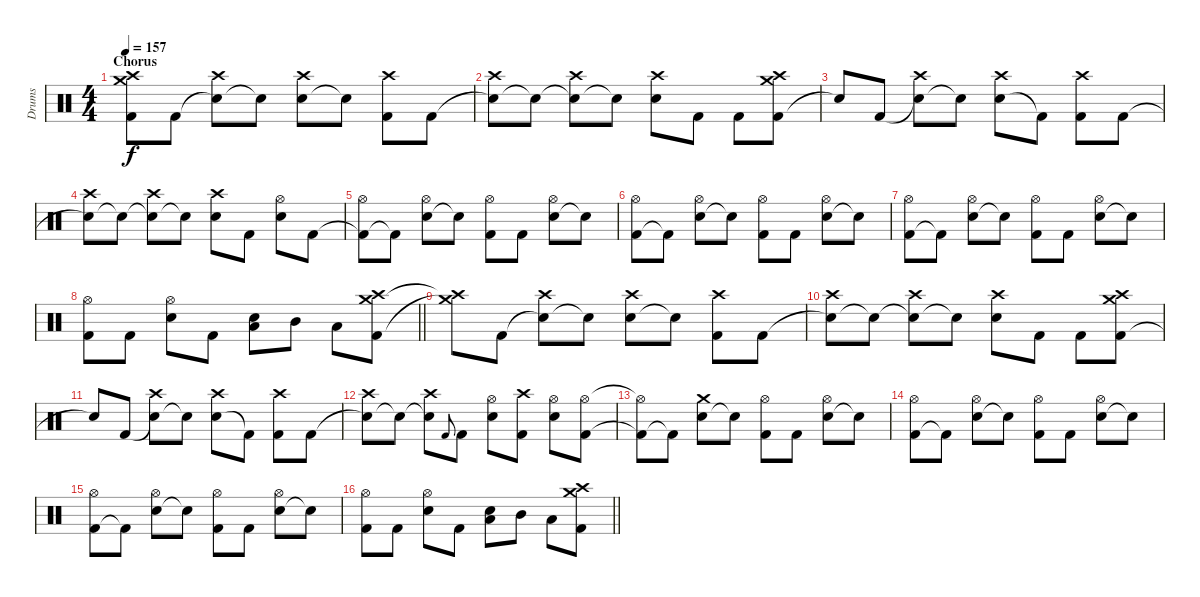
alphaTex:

\track ("Drums" "Drums") {instrument percussion}
\staff {score}
\articulation defaults
\ts (4 4)
\section ("" "Chorus")
\tempo 157
\clef neutral
\ks c
("Kick (hit) 2" "Crash medium (hit)" "Crash high (hit)").8{dy f} "Kick (hit) 2".8 ("Snare (hit)"{t} "Crash high (hit)").8 "Snare (hit)"{t}.8 ("Electric Snare (hit)" "Crash high (hit)").8 "Snare (hit)"{t}.8 ("Kick (hit) 2" "Crash high (hit)").8 "Kick (hit) 2".8 |
("Snare (hit)"{t} "Crash high (hit)").8 "Snare (hit)"{t}.8 ("Snare (hit)"{t} "Crash high (hit)").8 "Electric Snare (hit)"{t}.8 ("Electric Snare (hit)" "Crash high (hit)").8 "Kick (hit) 2".8 "Kick (hit) 2".8 ("Kick (hit) 2" "Crash medium (hit)" "Crash high (hit)").8 |
"Snare (hit)"{t}.8 "Kick (hit) 2".8 ("Snare (hit)"{t} "Crash high (hit)").8 "Electric Snare (hit)"{t}.8 ("Electric Snare (hit)" "Crash high (hit)").8 "Kick (hit) 2"{t}.8 ("Kick (hit) 2" "Crash high (hit)").8 "Kick (hit) 2".8 |
("Electric Snare (hit)"{t} "Crash high (hit)").8 "Snare (hit)"{t}.8 ("Snare (hit)"{t} "Crash high (hit)").8 "Snare (hit)"{t}.8 ("Electric Snare (hit)" "Crash high (hit)").8 "Kick (hit) 2".8 ("Electric Snare (hit)" "Hi-Hat (open)").8 "Kick (hit) 2".8 |
("Kick (hit) 2"{t} "Hi-Hat (open)").8 "Kick (hit) 2"{t}.8 ("Electric Snare (hit)" "Hi-Hat (open)").8 "Snare (hit)"{t}.8 ("Kick (hit) 2" "Hi-Hat (open)").8 "Kick (hit) 2".8 ("Electric Snare (hit)" "Hi-Hat (open)").8 "Snare (hit)"{t}.8 |
("Kick (hit) 2" "Hi-Hat (open)").8 "Kick (hit) 2"{t}.8 ("Electric Snare (hit)" "Hi-Hat (open)").8 "Snare (hit)"{t}.8 ("Kick (hit) 2" "Hi-Hat (open)").8 "Kick (hit) 2".8 ("Electric Snare (hit)" "Hi-Hat (open)").8 "Snare (hit)"{t}.8 |
("Kick (hit) 2" "Hi-Hat (open)").8 "Kick (hit) 2"{t}.8 ("Electric Snare (hit)" "Hi-Hat (open)").8 "Snare (hit)"{t}.8 ("Kick (hit) 2" "Hi-Hat (open)").8 "Kick (hit) 2".8 ("Electric Snare (hit)" "Hi-Hat (open)").8 "Snare (hit)"{t}.8 |
\barLineRight lightlight
("Kick (hit) 2" "Hi-Hat (open)").8 "Kick (hit) 2".8 ("Electric Snare (hit)" "Hi-Hat (open)").8 "Kick (hit) 2".8 ("Electric Snare (hit)" "Low Floor Tom (hit)").8 "Mid Tom (hit)".8 "Low Tom (hit)".8 ("Kick (hit) 2" "Crash medium (hit)" "Crash high (hit)").8 |
("Crash medium (hit)"{t} "Crash high (hit)"{t}).8 "Kick (hit) 2".8 ("Snare (hit)"{t} "Crash high (hit)").8 "Snare (hit)"{t}.8 ("Electric Snare (hit)" "Crash high (hit)").8 "Snare (hit)"{t}.8 ("Kick (hit) 2" "Crash high (hit)").8 "Kick (hit) 2".8 |
("Snare (hit)"{t} "Crash high (hit)").8 "Snare (hit)"{t}.8 ("Snare (hit)"{t} "Crash high (hit)").8 "Electric Snare (hit)"{t}.8 ("Electric Snare (hit)" "Crash high (hit)").8 "Kick (hit) 2".8 "Kick (hit) 2".8 ("Kick (hit) 2" "Crash medium (hit)" "Crash high (hit)").8 |
"Snare (hit)"{t}.8 "Kick (hit) 2".8 ("Snare (hit)"{t} "Crash high (hit)").8 "Electric Snare (hit)"{t}.8 ("Electric Snare (hit)" "Crash high (hit)").8 "Kick (hit) 2"{t}.8 ("Kick (hit) 2" "Crash high (hit)").8 "Kick (hit) 2".8 |
("Electric Snare (hit)"{t} "Crash high (hit)").8 "Snare (hit)"{t}.8 ("Snare (hit)"{t} "Crash high (hit)").8 "Kick (hit) 2".8{gr onbeat} "Kick (hit) 2".8 ("Electric Snare (hit)" "Hi-Hat (open)").8 ("Kick (hit) 2" "Crash high (hit)").8 ("Electric Snare (hit)" "Hi-Hat (open)").8 ("Kick (hit) 2" "Hi-Hat (open)").8 |
("Kick (hit) 2"{t} "Hi-Hat (open)"{t}).8 "Kick (hit) 2"{t}.8 ("Electric Snare (hit)" "Crash medium (hit)").8 "Snare (hit)"{t}.8 ("Kick (hit) 2" "Hi-Hat (open)").8 "Kick (hit) 2".8 ("Electric Snare (hit)" "Hi-Hat (open)").8 "Snare (hit)"{t}.8 |
("Kick (hit) 2" "Hi-Hat (open)").8 "Kick (hit) 2"{t}.8 ("Electric Snare (hit)" "Hi-Hat (open)").8 "Snare (hit)"{t}.8 ("Kick (hit) 2" "Hi-Hat (open)").8 "Kick (hit) 2".8 ("Electric Snare (hit)" "Hi-Hat (open)").8 "Snare (hit)"{t}.8 |
("Kick (hit) 2" "Hi-Hat (open)").8 "Kick (hit) 2"{t}.8 ("Electric Snare (hit)" "Hi-Hat (open)").8 "Snare (hit)"{t}.8 ("Kick (hit) 2" "Hi-Hat (open)").8 "Kick (hit) 2".8 ("Electric Snare (hit)" "Hi-Hat (open)").8 "Snare (hit)"{t}.8 |
\barLineRight lightlight
("Kick (hit) 2" "Hi-Hat (open)").8 "Kick (hit) 2".8 ("Electric Snare (hit)" "Hi-Hat (open)").8 "Kick (hit) 2".8 ("Electric Snare (hit)" "Low Floor Tom (hit)").8 "Mid Tom (hit)".8 "Low Tom (hit)".8 ("Kick (hit) 2" "Crash medium (hit)" "Crash high (hit)").8
